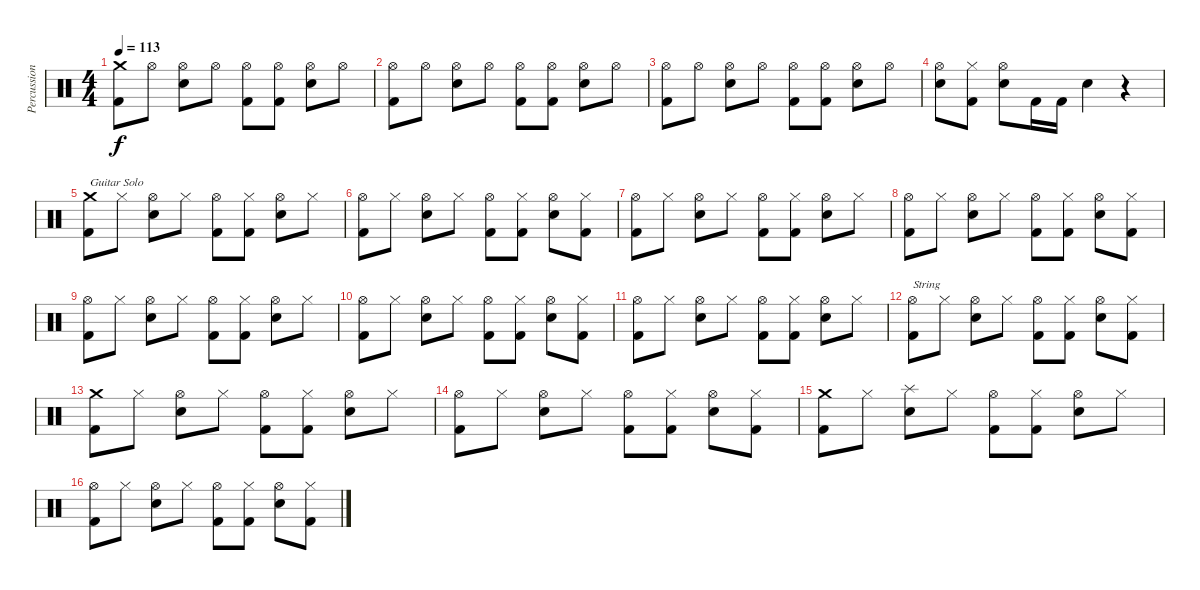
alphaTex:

\track ("Percussion" "Percussion") {instrument percussion}
\staff {score}
\articulation defaults
\ts (4 4)
\tempo 113
\clef neutral
\ks c
("Crash medium (hit)" "Kick (hit) 2").8{dy f} "Hi-Hat (open)".8 ("Hi-Hat (open)" "Snare (hit) 2").8 "Hi-Hat (open)".8 ("Hi-Hat (open)" "Kick (hit) 2").8 ("Hi-Hat (open)" "Kick (hit) 2").8 ("Hi-Hat (open)" "Snare (hit) 2").8 "Hi-Hat (open)".8 |
("Hi-Hat (open)" "Kick (hit) 2").8 "Hi-Hat (open)".8 ("Hi-Hat (open)" "Snare (hit) 2").8 "Hi-Hat (open)".8 ("Hi-Hat (open)" "Kick (hit) 2").8 ("Hi-Hat (open)" "Kick (hit) 2").8 ("Hi-Hat (open)" "Snare (hit) 2").8 "Hi-Hat (open)".8 |
("Hi-Hat (open)" "Kick (hit) 2").8 "Hi-Hat (open)".8 ("Hi-Hat (open)" "Snare (hit) 2").8 "Hi-Hat (open)".8 ("Hi-Hat (open)" "Kick (hit) 2").8 ("Hi-Hat (open)" "Kick (hit) 2").8 ("Hi-Hat (open)" "Snare (hit) 2").8 "Hi-Hat (open)".8 |
("Hi-Hat (open)" "Snare (hit) 2").8 ("Hi-Hat (closed)" "Kick (hit) 2").8 ("Hi-Hat (open)" "Snare (hit) 2").8 "Kick (hit) 2".16 "Kick (hit) 2".16 "Snare (hit) 2".4 r.4 |
("Crash medium (hit)" "Kick (hit) 2").8{txt "Guitar Solo"} "Hi-Hat (closed)".8 ("Hi-Hat (open)" "Snare (hit) 2").8 "Hi-Hat (closed)".8 ("Hi-Hat (open)" "Kick (hit) 2").8 ("Hi-Hat (closed)" "Kick (hit) 2").8 ("Hi-Hat (open)" "Snare (hit) 2").8 "Hi-Hat (closed)".8 |
("Hi-Hat (open)" "Kick (hit) 2").8 "Hi-Hat (closed)".8 ("Hi-Hat (open)" "Snare (hit) 2").8 "Hi-Hat (closed)".8 ("Hi-Hat (open)" "Kick (hit) 2").8 ("Hi-Hat (closed)" "Kick (hit) 2").8 ("Hi-Hat (open)" "Snare (hit) 2").8 ("Hi-Hat (closed)" "Kick (hit) 2").8 |
("Hi-Hat (open)" "Kick (hit) 2").8 "Hi-Hat (closed)".8 ("Hi-Hat (open)" "Snare (hit) 2").8 "Hi-Hat (closed)".8 ("Hi-Hat (open)" "Kick (hit) 2").8 ("Hi-Hat (closed)" "Kick (hit) 2").8 ("Hi-Hat (open)" "Snare (hit) 2").8 "Hi-Hat (closed)".8 |
("Hi-Hat (open)" "Kick (hit) 2").8 "Hi-Hat (closed)".8 ("Hi-Hat (open)" "Snare (hit) 2").8 "Hi-Hat (closed)".8 ("Hi-Hat (open)" "Kick (hit) 2").8 ("Hi-Hat (closed)" "Kick (hit) 2").8 ("Hi-Hat (open)" "Snare (hit) 2").8 ("Hi-Hat (closed)" "Kick (hit) 2").8 |
("Hi-Hat (open)" "Kick (hit) 2").8 "Hi-Hat (closed)".8 ("Hi-Hat (open)" "Snare (hit) 2").8 "Hi-Hat (closed)".8 ("Hi-Hat (open)" "Kick (hit) 2").8 ("Hi-Hat (closed)" "Kick (hit) 2").8 ("Hi-Hat (open)" "Snare (hit) 2").8 "Hi-Hat (closed)".8 |
("Hi-Hat (open)" "Kick (hit) 2").8 "Hi-Hat (closed)".8 ("Hi-Hat (open)" "Snare (hit) 2").8 "Hi-Hat (closed)".8 ("Hi-Hat (open)" "Kick (hit) 2").8 ("Hi-Hat (closed)" "Kick (hit) 2").8 ("Hi-Hat (open)" "Snare (hit) 2").8 ("Hi-Hat (closed)" "Kick (hit) 2").8 |
("Hi-Hat (open)" "Kick (hit) 2").8 "Hi-Hat (closed)".8 ("Hi-Hat (open)" "Snare (hit) 2").8 "Hi-Hat (closed)".8 ("Hi-Hat (open)" "Kick (hit) 2").8 ("Hi-Hat (closed)" "Kick (hit) 2").8 ("Hi-Hat (open)" "Snare (hit) 2").8 "Hi-Hat (closed)".8 |
("Hi-Hat (open)" "Kick (hit) 2").8{txt "String"} "Hi-Hat (closed)".8 ("Hi-Hat (open)" "Snare (hit) 2").8 "Hi-Hat (closed)".8 ("Hi-Hat (open)" "Kick (hit) 2").8 ("Hi-Hat (closed)" "Kick (hit) 2").8 ("Hi-Hat (open)" "Snare (hit) 2").8 ("Hi-Hat (closed)" "Kick (hit) 2").8 |
("Crash medium (hit)" "Kick (hit) 2").8 "Hi-Hat (closed)".8 ("Hi-Hat (open)" "Snare (hit) 2").8 "Hi-Hat (closed)".8 ("Hi-Hat (open)" "Kick (hit) 2").8 ("Hi-Hat (closed)" "Kick (hit) 2").8 ("Hi-Hat (open)" "Snare (hit) 2").8 "Hi-Hat (closed)".8 |
("Hi-Hat (open)" "Kick (hit) 2").8 "Hi-Hat (closed)".8 ("Hi-Hat (open)" "Snare (hit) 2").8 "Hi-Hat (closed)".8 ("Hi-Hat (open)" "Kick (hit) 2").8 ("Hi-Hat (closed)" "Kick (hit) 2").8 ("Hi-Hat (open)" "Snare (hit) 2").8 ("Hi-Hat (closed)" "Kick (hit) 2").8 |
("Crash medium (hit)" "Kick (hit) 2").8 "Hi-Hat (closed)".8 ("Splash (hit)" "Snare (hit) 2").8 "Hi-Hat (closed)".8 ("Hi-Hat (open)" "Kick (hit) 2").8 ("Hi-Hat (closed)" "Kick (hit) 2").8 ("Hi-Hat (open)" "Snare (hit) 2").8 "Hi-Hat (closed)".8 |
("Hi-Hat (open)" "Kick (hit) 2").8 "Hi-Hat (closed)".8 ("Hi-Hat (open)" "Snare (hit) 2").8 "Hi-Hat (closed)".8 ("Hi-Hat (open)" "Kick (hit) 2").8 ("Hi-Hat (closed)" "Kick (hit) 2").8 ("Hi-Hat (open)" "Snare (hit) 2").8 ("Hi-Hat (closed)" "Kick (hit) 2").8
